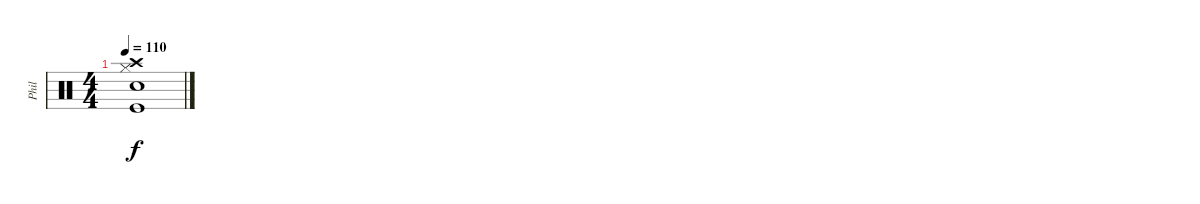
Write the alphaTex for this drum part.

\track ("Phil" "Phil") {instrument percussion}
\staff {score}
\articulation defaults
\ts (4 4)
\tempo 110
\clef neutral
\ks c
("Hi-Hat (closed)" "Crash high (hit)" "Snare (hit) 2" "Kick (hit)").1{dy f}
